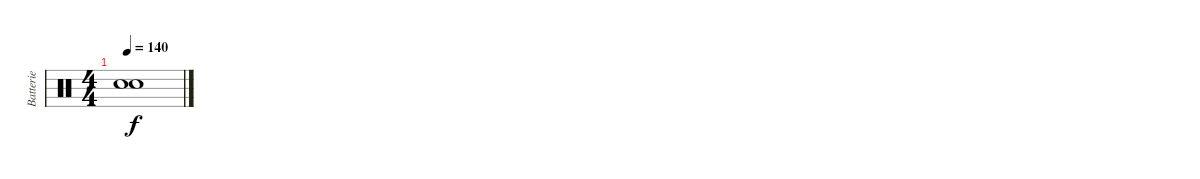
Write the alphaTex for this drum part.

\track ("Batterie" "Batterie") {instrument percussion}
\staff {score}
\articulation defaults
\ts (4 4)
\tempo 140
\clef neutral
\ks c
("Snare (hit)"{t} "Snare (hit)"{t}).1{dy f}
